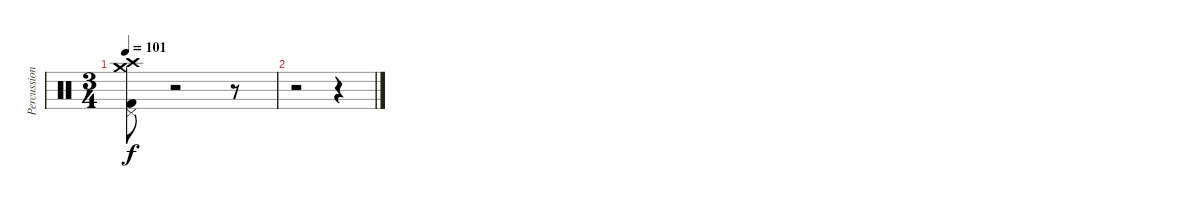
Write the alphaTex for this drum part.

\track ("Percussion" "Percussion") {instrument percussion}
\staff {score}
\articulation defaults
\ts (3 4)
\tempo 101
\clef neutral
\ks c
("Kick (hit) 2" "Pedal Hi-Hat (hit)" "Crash high (hit)" "Crash medium (hit)").8{dy f} r.2 r.8 |
r.2 r.4
